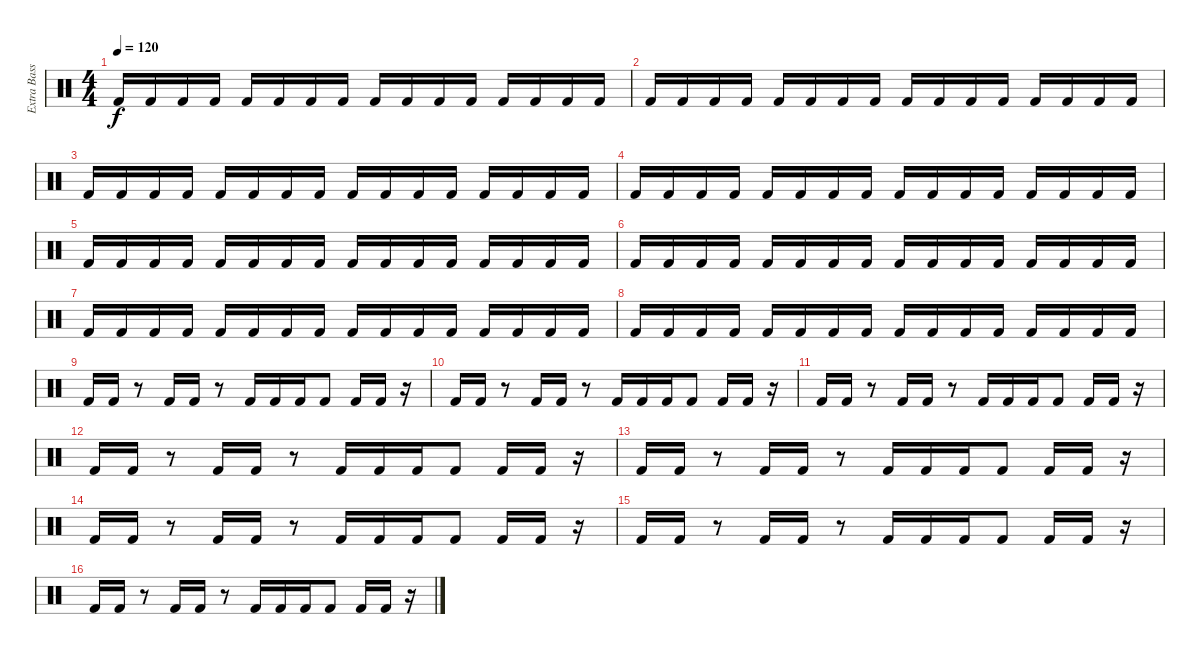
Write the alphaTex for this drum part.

\track ("Extra Bass Drum" "Extra Bass") {instrument percussion}
\staff {score}
\articulation defaults
\ts (4 4)
\tempo 120
\clef neutral
\ks c "Kick (hit) 2".16{dy f} "Kick (hit) 2".16 "Kick (hit) 2".16 "Kick (hit) 2".16 "Kick (hit) 2".16 "Kick (hit) 2".16 "Kick (hit) 2".16 "Kick (hit) 2".16 "Kick (hit) 2".16 "Kick (hit) 2".16 "Kick (hit) 2".16 "Kick (hit) 2".16 "Kick (hit) 2".16 "Kick (hit) 2".16 "Kick (hit) 2".16 "Kick (hit) 2".16
|
"Kick (hit) 2".16 "Kick (hit) 2".16 "Kick (hit) 2".16 "Kick (hit) 2".16 "Kick (hit) 2".16 "Kick (hit) 2".16 "Kick (hit) 2".16 "Kick (hit) 2".16 "Kick (hit) 2".16 "Kick (hit) 2".16 "Kick (hit) 2".16 "Kick (hit) 2".16 "Kick (hit) 2".16 "Kick (hit) 2".16 "Kick (hit) 2".16 "Kick (hit) 2".16 |
"Kick (hit) 2".16 "Kick (hit) 2".16 "Kick (hit) 2".16 "Kick (hit) 2".16 "Kick (hit) 2".16 "Kick (hit) 2".16 "Kick (hit) 2".16 "Kick (hit) 2".16 "Kick (hit) 2".16 "Kick (hit) 2".16 "Kick (hit) 2".16 "Kick (hit) 2".16 "Kick (hit) 2".16 "Kick (hit) 2".16 "Kick (hit) 2".16 "Kick (hit) 2".16 |
"Kick (hit) 2".16 "Kick (hit) 2".16 "Kick (hit) 2".16 "Kick (hit) 2".16 "Kick (hit) 2".16 "Kick (hit) 2".16 "Kick (hit) 2".16 "Kick (hit) 2".16 "Kick (hit) 2".16 "Kick (hit) 2".16 "Kick (hit) 2".16 "Kick (hit) 2".16 "Kick (hit) 2".16 "Kick (hit) 2".16 "Kick (hit) 2".16 "Kick (hit) 2".16 |
"Kick (hit) 2".16 "Kick (hit) 2".16 "Kick (hit) 2".16 "Kick (hit) 2".16 "Kick (hit) 2".16 "Kick (hit) 2".16 "Kick (hit) 2".16 "Kick (hit) 2".16 "Kick (hit) 2".16 "Kick (hit) 2".16 "Kick (hit) 2".16 "Kick (hit) 2".16 "Kick (hit) 2".16 "Kick (hit) 2".16 "Kick (hit) 2".16 "Kick (hit) 2".16 |
"Kick (hit) 2".16 "Kick (hit) 2".16 "Kick (hit) 2".16 "Kick (hit) 2".16 "Kick (hit) 2".16 "Kick (hit) 2".16 "Kick (hit) 2".16 "Kick (hit) 2".16 "Kick (hit) 2".16 "Kick (hit) 2".16 "Kick (hit) 2".16 "Kick (hit) 2".16 "Kick (hit) 2".16 "Kick (hit) 2".16 "Kick (hit) 2".16 "Kick (hit) 2".16 |
"Kick (hit) 2".16 "Kick (hit) 2".16 "Kick (hit) 2".16 "Kick (hit) 2".16 "Kick (hit) 2".16 "Kick (hit) 2".16 "Kick (hit) 2".16 "Kick (hit) 2".16 "Kick (hit) 2".16 "Kick (hit) 2".16 "Kick (hit) 2".16 "Kick (hit) 2".16 "Kick (hit) 2".16 "Kick (hit) 2".16 "Kick (hit) 2".16 "Kick (hit) 2".16 |
"Kick (hit) 2".16 "Kick (hit) 2".16 "Kick (hit) 2".16 "Kick (hit) 2".16 "Kick (hit) 2".16 "Kick (hit) 2".16 "Kick (hit) 2".16 "Kick (hit) 2".16 "Kick (hit) 2".16 "Kick (hit) 2".16 "Kick (hit) 2".16 "Kick (hit) 2".16 "Kick (hit) 2".16 "Kick (hit) 2".16 "Kick (hit) 2".16 "Kick (hit) 2".16 |
"Kick (hit) 2".16 "Kick (hit) 2".16 r.8 "Kick (hit) 2".16 "Kick (hit) 2".16 r.8 "Kick (hit) 2".16 "Kick (hit) 2".16 "Kick (hit) 2".16 "Kick (hit) 2".8 "Kick (hit) 2".16 "Kick (hit) 2".16 r.16 |
"Kick (hit) 2".16 "Kick (hit) 2".16 r.8 "Kick (hit) 2".16 "Kick (hit) 2".16 r.8 "Kick (hit) 2".16 "Kick (hit) 2".16 "Kick (hit) 2".16 "Kick (hit) 2".8 "Kick (hit) 2".16 "Kick (hit) 2".16 r.16 |
"Kick (hit) 2".16 "Kick (hit) 2".16 r.8 "Kick (hit) 2".16 "Kick (hit) 2".16 r.8 "Kick (hit) 2".16 "Kick (hit) 2".16 "Kick (hit) 2".16 "Kick (hit) 2".8 "Kick (hit) 2".16 "Kick (hit) 2".16 r.16 |
"Kick (hit) 2".16 "Kick (hit) 2".16 r.8 "Kick (hit) 2".16 "Kick (hit) 2".16 r.8 "Kick (hit) 2".16 "Kick (hit) 2".16 "Kick (hit) 2".16 "Kick (hit) 2".8 "Kick (hit) 2".16 "Kick (hit) 2".16 r.16 |
"Kick (hit) 2".16 "Kick (hit) 2".16 r.8 "Kick (hit) 2".16 "Kick (hit) 2".16 r.8 "Kick (hit) 2".16 "Kick (hit) 2".16 "Kick (hit) 2".16 "Kick (hit) 2".8 "Kick (hit) 2".16 "Kick (hit) 2".16 r.16 |
"Kick (hit) 2".16 "Kick (hit) 2".16 r.8 "Kick (hit) 2".16 "Kick (hit) 2".16 r.8 "Kick (hit) 2".16 "Kick (hit) 2".16 "Kick (hit) 2".16 "Kick (hit) 2".8 "Kick (hit) 2".16 "Kick (hit) 2".16 r.16 |
"Kick (hit) 2".16 "Kick (hit) 2".16 r.8 "Kick (hit) 2".16 "Kick (hit) 2".16 r.8 "Kick (hit) 2".16 "Kick (hit) 2".16 "Kick (hit) 2".16 "Kick (hit) 2".8 "Kick (hit) 2".16 "Kick (hit) 2".16 r.16 |
"Kick (hit) 2".16 "Kick (hit) 2".16 r.8 "Kick (hit) 2".16 "Kick (hit) 2".16 r.8 "Kick (hit) 2".16 "Kick (hit) 2".16 "Kick (hit) 2".16 "Kick (hit) 2".8 "Kick (hit) 2".16 "Kick (hit) 2".16 r.16
